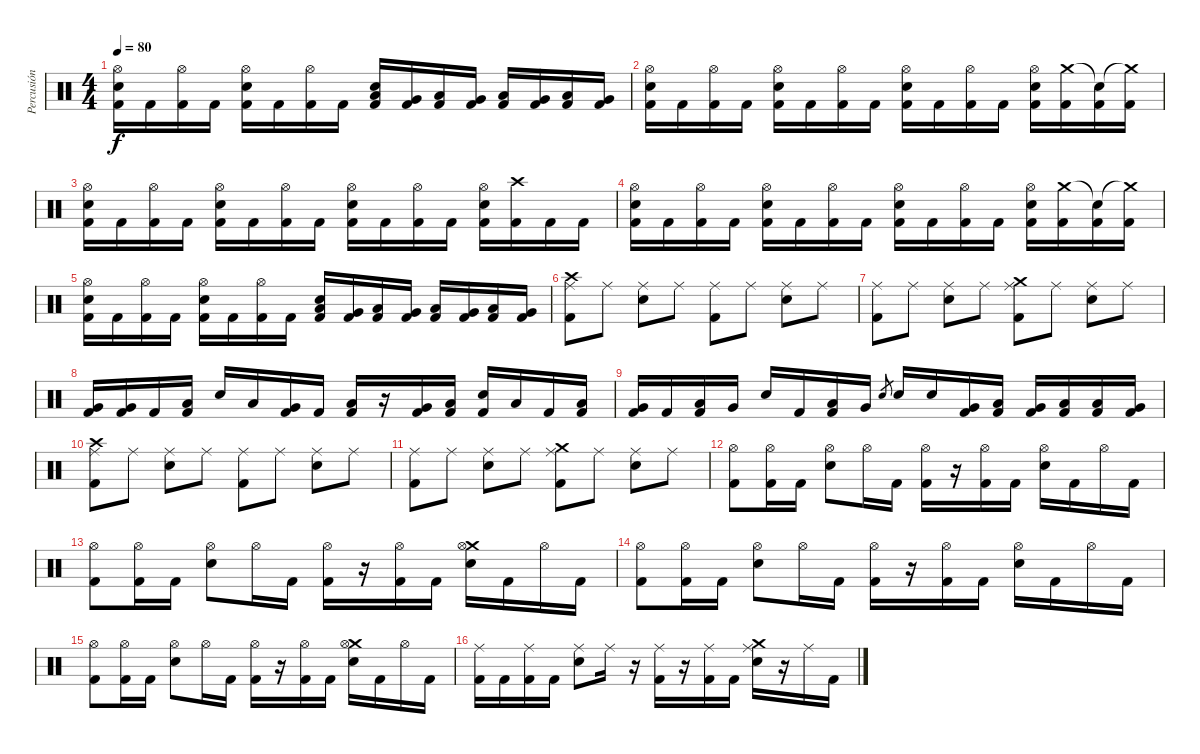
\track ("Percusión" "Percusión") {instrument percussion}
\staff {score}
\articulation defaults
\ts (4 4)
\tempo 80
\clef neutral
\ks c
("Kick (hit) 2" "Hi-Hat (open)" "Electric Snare (hit)").16{dy f} "Kick (hit) 2".16 ("Kick (hit) 2" "Hi-Hat (open)").16 "Kick (hit) 2".16 ("Kick (hit) 2" "Hi-Hat (open)" "Electric Snare (hit)").16 "Kick (hit) 2".16 ("Kick (hit) 2" "Hi-Hat (open)").16 "Kick (hit) 2".16 ("Kick (hit) 2" "Low Floor Tom (hit)" "Electric Snare (hit)").16 ("Kick (hit) 2" "Very Low Tom (hit)").16 ("Kick (hit) 2" "Low Floor Tom (hit)").16 ("Kick (hit) 2" "Very Low Tom (hit)").16 ("Kick (hit) 2" "Low Floor Tom (hit)").16 ("Kick (hit) 2" "Very Low Tom (hit)").16 ("Kick (hit) 2" "Low Floor Tom (hit)").16 ("Kick (hit) 2" "Very Low Tom (hit)").16 |
("Kick (hit) 2" "Hi-Hat (open)" "Electric Snare (hit)").16 "Kick (hit) 2".16 ("Kick (hit) 2" "Hi-Hat (open)").16 "Kick (hit) 2".16 ("Kick (hit) 2" "Hi-Hat (open)" "Electric Snare (hit)").16 "Kick (hit) 2".16 ("Kick (hit) 2" "Hi-Hat (open)").16 "Kick (hit) 2".16 ("Kick (hit) 2" "Hi-Hat (open)" "Electric Snare (hit)").16 "Kick (hit) 2".16 ("Kick (hit) 2" "Hi-Hat (open)").16 "Kick (hit) 2".16 ("Kick (hit) 2" "Hi-Hat (open)" "Electric Snare (hit)").16 ("Kick (hit) 2" "Crash medium (hit)").16 ("Kick (hit) 2" "Snare (hit)"{t}).16 ("Kick (hit) 2" "Crash medium (hit)"{t}).16 |
("Kick (hit) 2" "Hi-Hat (open)" "Electric Snare (hit)").16 "Kick (hit) 2".16 ("Kick (hit) 2" "Hi-Hat (open)").16 "Kick (hit) 2".16 ("Kick (hit) 2" "Hi-Hat (open)" "Electric Snare (hit)").16 "Kick (hit) 2".16 ("Kick (hit) 2" "Hi-Hat (open)").16 "Kick (hit) 2".16 ("Kick (hit) 2" "Hi-Hat (open)" "Electric Snare (hit)").16 "Kick (hit) 2".16 ("Kick (hit) 2" "Hi-Hat (open)").16 "Kick (hit) 2".16 ("Kick (hit) 2" "Hi-Hat (open)" "Electric Snare (hit)").16 ("Kick (hit) 2" "Crash high (hit)").16 "Kick (hit) 2".16 "Kick (hit) 2".16 |
("Kick (hit) 2" "Hi-Hat (open)" "Electric Snare (hit)").16 "Kick (hit) 2".16 ("Kick (hit) 2" "Hi-Hat (open)").16 "Kick (hit) 2".16 ("Kick (hit) 2" "Hi-Hat (open)" "Electric Snare (hit)").16 "Kick (hit) 2".16 ("Kick (hit) 2" "Hi-Hat (open)").16 "Kick (hit) 2".16 ("Kick (hit) 2" "Hi-Hat (open)" "Electric Snare (hit)").16 "Kick (hit) 2".16 ("Kick (hit) 2" "Hi-Hat (open)").16 "Kick (hit) 2".16 ("Kick (hit) 2" "Hi-Hat (open)" "Electric Snare (hit)").16 ("Kick (hit) 2" "Crash medium (hit)").16 ("Kick (hit) 2" "Snare (hit)"{t}).16 ("Kick (hit) 2" "Crash medium (hit)"{t}).16 |
("Kick (hit) 2" "Hi-Hat (open)" "Electric Snare (hit)").16 "Kick (hit) 2".16 ("Kick (hit) 2" "Hi-Hat (open)").16 "Kick (hit) 2".16 ("Kick (hit) 2" "Hi-Hat (open)" "Electric Snare (hit)").16 "Kick (hit) 2".16 ("Kick (hit) 2" "Hi-Hat (open)").16 "Kick (hit) 2".16 ("Kick (hit) 2" "Low Floor Tom (hit)" "Electric Snare (hit)").16 ("Kick (hit) 2" "Very Low Tom (hit)").16 ("Kick (hit) 2" "Low Floor Tom (hit)").16 ("Kick (hit) 2" "Very Low Tom (hit)").16 ("Kick (hit) 2" "Low Floor Tom (hit)").16 ("Kick (hit) 2" "Very Low Tom (hit)").16 ("Kick (hit) 2" "Low Floor Tom (hit)").16 ("Kick (hit) 2" "Very Low Tom (hit)").16 |
("Kick (hit) 2" "Crash high (hit)" "Ride (middle)").8 "Ride (middle)".8 ("Electric Snare (hit)" "Ride (middle)").8 "Ride (middle)".8 ("Kick (hit) 2" "Ride (middle)").8 "Ride (middle)".8 ("Electric Snare (hit)" "Ride (middle)").8 "Ride (middle)".8 |
("Kick (hit) 2" "Ride (middle)").8 "Ride (middle)".8 ("Electric Snare (hit)" "Ride (middle)").8 "Ride (middle)".8 ("Kick (hit) 2" "Crash medium (hit)" "Ride (middle)").8 "Ride (middle)".8 ("Electric Snare (hit)" "Ride (middle)").8 "Ride (middle)".8 |
("Kick (hit) 2" "Very Low Tom (hit)").16 ("Kick (hit) 2" "Very Low Tom (hit)").16 "Kick (hit) 2".16 ("Kick (hit) 2" "Low Floor Tom (hit)").16 "Electric Snare (hit)".16 "Low Floor Tom (hit)".16 ("Kick (hit) 2" "Very Low Tom (hit)").16 "Kick (hit) 2".16 ("Kick (hit) 2" "Low Floor Tom (hit)").16 r.16 ("Kick (hit) 2" "Very Low Tom (hit)").16 ("Kick (hit) 2" "Low Floor Tom (hit)").16 ("Kick (hit) 2" "Electric Snare (hit)").16 "Low Floor Tom (hit)".16 "Kick (hit) 2".16 ("Kick (hit) 2" "Low Floor Tom (hit)").16 |
("Kick (hit) 2" "Very Low Tom (hit)").16 "Kick (hit) 2".16 ("Kick (hit) 2" "Low Floor Tom (hit)").16 "Very Low Tom (hit)".16 "Electric Snare (hit)".16 "Kick (hit) 2".16 ("Kick (hit) 2" "Low Floor Tom (hit)").16 "Very Low Tom (hit)".16 "Electric Snare (hit)".8{gr} "Electric Snare (hit)".16 "Electric Snare (hit)".16 ("Very Low Tom (hit)" "Kick (hit) 2").16 ("Low Floor Tom (hit)" "Kick (hit) 2").16 ("Very Low Tom (hit)" "Kick (hit) 2").16 ("Low Floor Tom (hit)" "Kick (hit) 2").16 ("Low Floor Tom (hit)" "Kick (hit) 2").16 ("Very Low Tom (hit)" "Kick (hit) 2").16 |
("Kick (hit) 2" "Crash high (hit)" "Ride (middle)").8 "Ride (middle)".8 ("Electric Snare (hit)" "Ride (middle)").8 "Ride (middle)".8 ("Kick (hit) 2" "Ride (middle)").8 "Ride (middle)".8 ("Electric Snare (hit)" "Ride (middle)").8 "Ride (middle)".8 |
("Kick (hit) 2" "Ride (middle)").8 "Ride (middle)".8 ("Electric Snare (hit)" "Ride (middle)").8 "Ride (middle)".8 ("Kick (hit) 2" "Crash medium (hit)" "Ride (middle)").8 "Ride (middle)".8 ("Electric Snare (hit)" "Ride (middle)").8 "Ride (middle)".8 |
("Kick (hit) 2" "Hi-Hat (open)").8 ("Kick (hit) 2" "Hi-Hat (open)").16 "Kick (hit) 2".16 ("Electric Snare (hit)" "Hi-Hat (open)").8 "Hi-Hat (open)".16 "Kick (hit) 2".16 ("Kick (hit) 2" "Hi-Hat (open)").16 r.16 ("Kick (hit) 2" "Hi-Hat (open)").16 "Kick (hit) 2".16 ("Electric Snare (hit)" "Hi-Hat (open)").16 "Kick (hit) 2".16 "Hi-Hat (open)".16 "Kick (hit) 2".16 |
("Kick (hit) 2" "Hi-Hat (open)").8 ("Kick (hit) 2" "Hi-Hat (open)").16 "Kick (hit) 2".16 ("Electric Snare (hit)" "Hi-Hat (open)").8 "Hi-Hat (open)".16 "Kick (hit) 2".16 ("Kick (hit) 2" "Hi-Hat (open)").16 r.16 ("Kick (hit) 2" "Hi-Hat (open)").16 "Kick (hit) 2".16 ("Electric Snare (hit)" "Crash medium (hit)" "Hi-Hat (open)").16 "Kick (hit) 2".16 "Hi-Hat (open)".16 "Kick (hit) 2".16 |
("Kick (hit) 2" "Hi-Hat (open)").8 ("Kick (hit) 2" "Hi-Hat (open)").16 "Kick (hit) 2".16 ("Electric Snare (hit)" "Hi-Hat (open)").8 "Hi-Hat (open)".16 "Kick (hit) 2".16 ("Kick (hit) 2" "Hi-Hat (open)").16 r.16 ("Kick (hit) 2" "Hi-Hat (open)").16 "Kick (hit) 2".16 ("Electric Snare (hit)" "Hi-Hat (open)").16 "Kick (hit) 2".16 "Hi-Hat (open)".16 "Kick (hit) 2".16 |
("Kick (hit) 2" "Hi-Hat (open)").8 ("Kick (hit) 2" "Hi-Hat (open)").16 "Kick (hit) 2".16 ("Electric Snare (hit)" "Hi-Hat (open)").8 "Hi-Hat (open)".16 "Kick (hit) 2".16 ("Kick (hit) 2" "Hi-Hat (open)").16 r.16 ("Kick (hit) 2" "Hi-Hat (open)").16 "Kick (hit) 2".16 ("Electric Snare (hit)" "Crash medium (hit)" "Hi-Hat (open)").16 "Kick (hit) 2".16 "Hi-Hat (open)".16 "Kick (hit) 2".16 |
("Kick (hit) 2" "Ride (middle)").16 "Kick (hit) 2".16 ("Kick (hit) 2" "Ride (middle)").16 "Kick (hit) 2".16 ("Electric Snare (hit)" "Ride (middle)").8 "Ride (middle)".16 r.16 ("Kick (hit) 2" "Ride (middle)").16 r.16 ("Kick (hit) 2" "Ride (middle)").16 "Kick (hit) 2".16 ("Electric Snare (hit)" "Crash medium (hit)" "Ride (middle)").16 r.16 "Ride (middle)".16 "Kick (hit) 2".16
